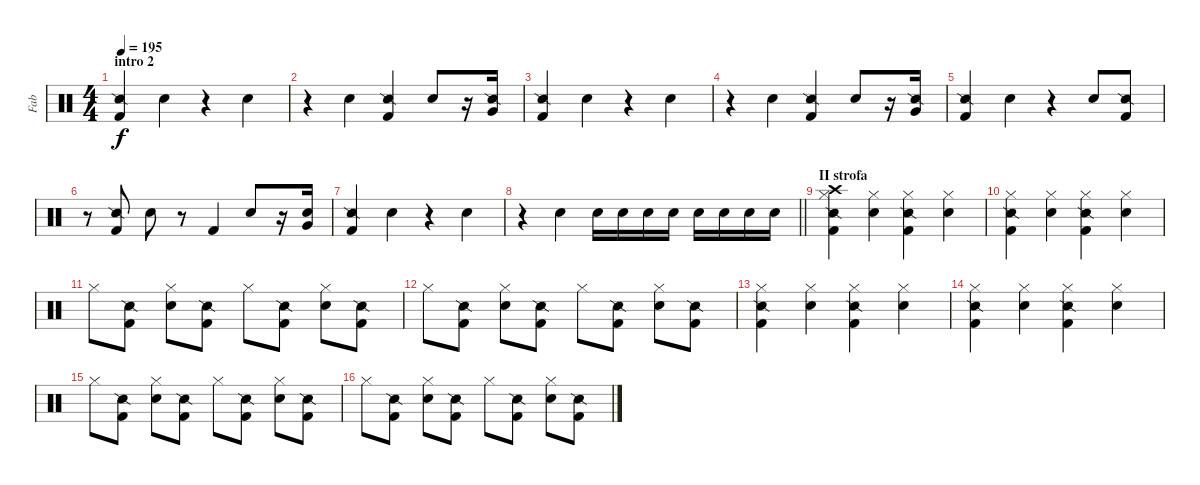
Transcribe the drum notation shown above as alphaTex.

\track ("Fab" "Fab") {instrument percussion}
\staff {score}
\articulation defaults
\ts (4 4)
\section ("" "intro 2")
\tempo 195
\clef neutral
\ks c
("Snare (side stick) 2" "Kick (hit) 2").4{dy f} "Electric Snare (hit)".4 r.4 "Electric Snare (hit)".4 |
r.4 "Electric Snare (hit)".4 ("Snare (side stick) 2" "Kick (hit) 2").4 "Electric Snare (hit)".8 r.16 ("Snare (side stick) 2" "Very Low Tom (hit)").16 |
("Snare (side stick) 2" "Kick (hit) 2").4 "Electric Snare (hit)".4 r.4 "Electric Snare (hit)".4 |
r.4 "Electric Snare (hit)".4 ("Snare (side stick) 2" "Kick (hit) 2").4 "Electric Snare (hit)".8 r.16 ("Snare (side stick) 2" "Very Low Tom (hit)").16 |
("Snare (side stick) 2" "Kick (hit) 2").4 "Electric Snare (hit)".4 r.4 "Electric Snare (hit)".8 ("Snare (side stick) 2" "Kick (hit) 2").8 |
r.8 ("Snare (side stick) 2" "Kick (hit) 2").8 "Electric Snare (hit)".8 r.8 "Kick (hit) 2".4 "Electric Snare (hit)".8 r.16 ("Electric Snare (hit)" "Very Low Tom (hit)").16 |
("Snare (side stick) 2" "Kick (hit) 2").4 "Electric Snare (hit)".4 r.4 "Electric Snare (hit)".4 |
\barLineRight lightlight
r.4 "Electric Snare (hit)".4 "Electric Snare (hit)".16 "Electric Snare (hit)".16 "Electric Snare (hit)".16 "Electric Snare (hit)".16 "Electric Snare (hit)".16 "Electric Snare (hit)".16 "Electric Snare (hit)".16 "Electric Snare (hit)".16 |
\section ("" "II strofa")
("Crash high (hit)" "Hi-Hat (closed)" "Snare (side stick) 2" "Kick (hit) 2").4 ("Hi-Hat (closed)" "Electric Snare (hit)").4 ("Hi-Hat (closed)" "Snare (side stick) 2" "Kick (hit) 2").4 ("Hi-Hat (closed)" "Electric Snare (hit)").4 |
("Hi-Hat (closed)" "Snare (side stick) 2" "Kick (hit) 2").4 ("Hi-Hat (closed)" "Electric Snare (hit)").4 ("Hi-Hat (closed)" "Snare (side stick) 2" "Kick (hit) 2").4 ("Hi-Hat (closed)" "Electric Snare (hit)").4 |
"Hi-Hat (closed)".8 ("Kick (hit) 2" "Snare (side stick) 2").8 ("Hi-Hat (closed)" "Electric Snare (hit)").8 ("Kick (hit) 2" "Snare (side stick) 2").8 "Hi-Hat (closed)".8 ("Kick (hit) 2" "Snare (side stick) 2").8 ("Hi-Hat (closed)" "Electric Snare (hit)").8 ("Kick (hit) 2" "Snare (side stick) 2").8 |
"Hi-Hat (closed)".8 ("Snare (side stick) 2" "Kick (hit) 2").8 ("Hi-Hat (closed)" "Electric Snare (hit)").8 ("Snare (side stick) 2" "Kick (hit) 2").8 "Hi-Hat (closed)".8 ("Snare (side stick) 2" "Kick (hit) 2").8 ("Hi-Hat (closed)" "Electric Snare (hit)").8 ("Snare (side stick) 2" "Kick (hit) 2").8 |
("Hi-Hat (closed)" "Snare (side stick) 2" "Kick (hit) 2").4 ("Hi-Hat (closed)" "Electric Snare (hit)").4 ("Hi-Hat (closed)" "Snare (side stick) 2" "Kick (hit) 2").4 ("Hi-Hat (closed)" "Electric Snare (hit)").4 |
("Hi-Hat (closed)" "Snare (side stick) 2" "Kick (hit) 2").4 ("Hi-Hat (closed)" "Electric Snare (hit)").4 ("Hi-Hat (closed)" "Snare (side stick) 2" "Kick (hit) 2").4 ("Hi-Hat (closed)" "Electric Snare (hit)").4 |
"Hi-Hat (closed)".8 ("Kick (hit) 2" "Snare (side stick) 2").8 ("Hi-Hat (closed)" "Electric Snare (hit)").8 ("Kick (hit) 2" "Snare (side stick) 2").8 "Hi-Hat (closed)".8 ("Kick (hit) 2" "Snare (side stick) 2").8 ("Hi-Hat (closed)" "Electric Snare (hit)").8 ("Kick (hit) 2" "Snare (side stick) 2").8 |
"Hi-Hat (closed)".8 ("Snare (side stick) 2" "Kick (hit) 2").8 ("Hi-Hat (closed)" "Electric Snare (hit)").8 ("Snare (side stick) 2" "Kick (hit) 2").8 "Hi-Hat (closed)".8 ("Snare (side stick) 2" "Kick (hit) 2").8 ("Hi-Hat (closed)" "Electric Snare (hit)").8 ("Snare (side stick) 2" "Kick (hit) 2").8
